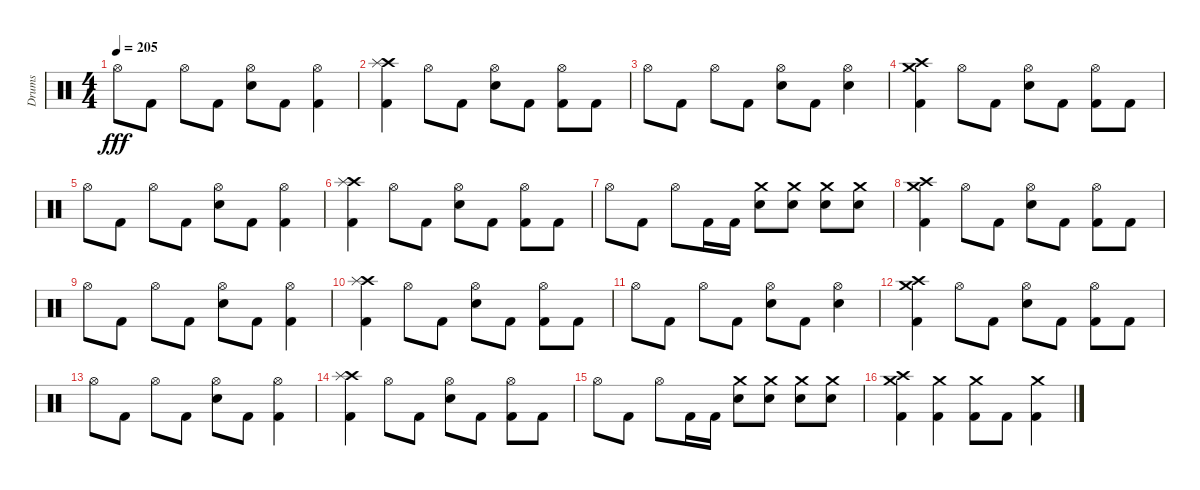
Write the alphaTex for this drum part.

\track ("Drums" "Drums") {instrument percussion}
\staff {score}
\articulation defaults
\ts (4 4)
\tempo 205
\clef neutral
\ks c "Hi-Hat (open)".8{dy fff} "Kick (hit) 2".8 "Hi-Hat (open)".8 "Kick (hit) 2".8
("Hi-Hat (open)" "Electric Snare (hit)").8 "Kick (hit) 2".8 ("Hi-Hat (open)" "Kick (hit) 2").4 |
("Crash high (hit)" "Splash (hit)" "Kick (hit) 2").4 "Hi-Hat (open)".8 "Kick (hit) 2".8 ("Hi-Hat (open)" "Electric Snare (hit)").8 "Kick (hit) 2".8 ("Hi-Hat (open)" "Kick (hit) 2").8 "Kick (hit) 2".8 |
"Hi-Hat (open)".8 "Kick (hit) 2".8 "Hi-Hat (open)".8 "Kick (hit) 2".8 ("Hi-Hat (open)" "Electric Snare (hit)").8 "Kick (hit) 2".8 ("Hi-Hat (open)" "Electric Snare (hit)").4 |
("Crash medium (hit)" "Crash high (hit)" "Kick (hit) 2").4 "Hi-Hat (open)".8 "Kick (hit) 2".8 ("Hi-Hat (open)" "Electric Snare (hit)").8 "Kick (hit) 2".8 ("Hi-Hat (open)" "Kick (hit) 2").8 "Kick (hit) 2".8 |
"Hi-Hat (open)".8 "Kick (hit) 2".8 "Hi-Hat (open)".8 "Kick (hit) 2".8 ("Hi-Hat (open)" "Electric Snare (hit)").8 "Kick (hit) 2".8 ("Hi-Hat (open)" "Kick (hit) 2").4 |
("Crash high (hit)" "Splash (hit)" "Kick (hit) 2").4 "Hi-Hat (open)".8 "Kick (hit) 2".8 ("Hi-Hat (open)" "Electric Snare (hit)").8 "Kick (hit) 2".8 ("Hi-Hat (open)" "Kick (hit) 2").8 "Kick (hit) 2".8 |
"Hi-Hat (open)".8 "Kick (hit) 2".8 "Hi-Hat (open)".8 "Kick (hit) 2".16 "Kick (hit) 2".16 ("Crash medium (hit)" "Electric Snare (hit)").8 ("Crash medium (hit)" "Electric Snare (hit)").8 ("Crash medium (hit)" "Electric Snare (hit)").8 ("Crash medium (hit)" "Electric Snare (hit)").8 |
("Crash medium (hit)" "Crash high (hit)" "Kick (hit) 2").4 "Hi-Hat (open)".8 "Kick (hit) 2".8 ("Hi-Hat (open)" "Electric Snare (hit)").8 "Kick (hit) 2".8 ("Hi-Hat (open)" "Kick (hit) 2").8 "Kick (hit) 2".8 |
"Hi-Hat (open)".8 "Kick (hit) 2".8 "Hi-Hat (open)".8 "Kick (hit) 2".8 ("Hi-Hat (open)" "Electric Snare (hit)").8 "Kick (hit) 2".8 ("Hi-Hat (open)" "Kick (hit) 2").4 |
("Crash high (hit)" "Splash (hit)" "Kick (hit) 2").4 "Hi-Hat (open)".8 "Kick (hit) 2".8 ("Hi-Hat (open)" "Electric Snare (hit)").8 "Kick (hit) 2".8 ("Hi-Hat (open)" "Kick (hit) 2").8 "Kick (hit) 2".8 |
"Hi-Hat (open)".8 "Kick (hit) 2".8 "Hi-Hat (open)".8 "Kick (hit) 2".8 ("Hi-Hat (open)" "Electric Snare (hit)").8 "Kick (hit) 2".8 ("Hi-Hat (open)" "Electric Snare (hit)").4 |
("Crash medium (hit)" "Crash high (hit)" "Kick (hit) 2").4 "Hi-Hat (open)".8 "Kick (hit) 2".8 ("Hi-Hat (open)" "Electric Snare (hit)").8 "Kick (hit) 2".8 ("Hi-Hat (open)" "Kick (hit) 2").8 "Kick (hit) 2".8 |
"Hi-Hat (open)".8 "Kick (hit) 2".8 "Hi-Hat (open)".8 "Kick (hit) 2".8 ("Hi-Hat (open)" "Electric Snare (hit)").8 "Kick (hit) 2".8 ("Hi-Hat (open)" "Kick (hit) 2").4 |
("Crash high (hit)" "Splash (hit)" "Kick (hit) 2").4 "Hi-Hat (open)".8 "Kick (hit) 2".8 ("Hi-Hat (open)" "Electric Snare (hit)").8 "Kick (hit) 2".8 ("Hi-Hat (open)" "Kick (hit) 2").8 "Kick (hit) 2".8 |
"Hi-Hat (open)".8 "Kick (hit) 2".8 "Hi-Hat (open)".8 "Kick (hit) 2".16 "Kick (hit) 2".16 ("Crash medium (hit)" "Electric Snare (hit)").8 ("Crash medium (hit)" "Electric Snare (hit)").8 ("Crash medium (hit)" "Electric Snare (hit)").8 ("Crash medium (hit)" "Electric Snare (hit)").8 |
("Crash medium (hit)" "Crash high (hit)" "Kick (hit) 2").4 ("Crash medium (hit)" "Kick (hit) 2").4 ("Crash medium (hit)" "Kick (hit) 2").8 "Kick (hit) 2".8 ("Crash medium (hit)" "Kick (hit) 2").4
